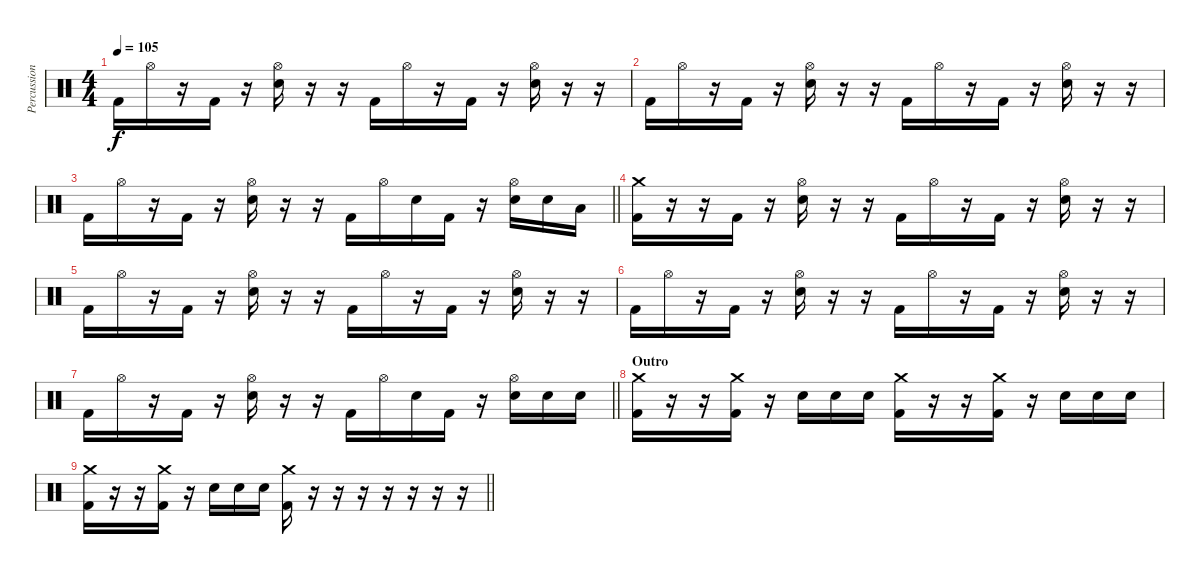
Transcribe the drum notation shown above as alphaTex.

\track ("Percussion" "Percussion") {instrument percussion}
\staff {score}
\articulation defaults
\ts (4 4)
\tempo 105
\clef neutral
\ks c "Kick (hit) 2".16{dy f} "Hi-Hat (open)".16
r.16 "Kick (hit) 2".16 r.16 ("Hi-Hat (open)" "Electric Snare (hit)").16 r.16 r.16 "Kick (hit) 2".16 "Hi-Hat (open)".16 r.16 "Kick (hit) 2".16 r.16 ("Hi-Hat (open)" "Electric Snare (hit)").16 r.16 r.16 |
"Kick (hit) 2".16 "Hi-Hat (open)".16 r.16 "Kick (hit) 2".16 r.16 ("Hi-Hat (open)" "Electric Snare (hit)").16 r.16 r.16 "Kick (hit) 2".16 "Hi-Hat (open)".16 r.16 "Kick (hit) 2".16 r.16 ("Hi-Hat (open)" "Electric Snare (hit)").16 r.16 r.16 |
\barLineRight lightlight "Kick (hit) 2".16 "Hi-Hat (open)".16
r.16 "Kick (hit) 2".16 r.16 ("Hi-Hat (open)" "Electric Snare (hit)").16 r.16 r.16 "Kick (hit) 2".16 "Hi-Hat (open)".16 "Electric Snare (hit)".16 "Kick (hit) 2".16 r.16 ("Hi-Hat (open)" "Electric Snare (hit)").16 "Electric Snare (hit)".16 "Low Tom (hit)".16 |
("Crash medium (hit)" "Kick (hit) 2").16 r.16 r.16 "Kick (hit) 2".16 r.16 ("Hi-Hat (open)" "Electric Snare (hit)").16 r.16 r.16 "Kick (hit) 2".16 "Hi-Hat (open)".16 r.16 "Kick (hit) 2".16 r.16 ("Hi-Hat (open)" "Electric Snare (hit)").16 r.16 r.16 |
"Kick (hit) 2".16 "Hi-Hat (open)".16 r.16 "Kick (hit) 2".16 r.16 ("Hi-Hat (open)" "Electric Snare (hit)").16 r.16 r.16 "Kick (hit) 2".16 "Hi-Hat (open)".16 r.16 "Kick (hit) 2".16 r.16 ("Hi-Hat (open)" "Electric Snare (hit)").16 r.16 r.16 |
"Kick (hit) 2".16 "Hi-Hat (open)".16 r.16 "Kick (hit) 2".16 r.16 ("Hi-Hat (open)" "Electric Snare (hit)").16 r.16 r.16 "Kick (hit) 2".16 "Hi-Hat (open)".16 r.16 "Kick (hit) 2".16 r.16 ("Hi-Hat (open)" "Electric Snare (hit)").16 r.16 r.16 |
\barLineRight lightlight "Kick (hit) 2".16 "Hi-Hat (open)".16
r.16 "Kick (hit) 2".16 r.16 ("Hi-Hat (open)" "Electric Snare (hit)").16 r.16 r.16 "Kick (hit) 2".16 "Hi-Hat (open)".16 "Electric Snare (hit)".16 "Kick (hit) 2".16 r.16 ("Hi-Hat (open)" "Electric Snare (hit)").16 "Electric Snare (hit)".16 "Electric Snare (hit)".16 |
\section ("" "Outro")
("Crash medium (hit)" "Kick (hit) 2").16 r.16 r.16 ("Crash medium (hit)" "Kick (hit) 2").16 r.16 "Electric Snare (hit)".16 "Electric Snare (hit)".16 "Electric Snare (hit)".16 ("Crash medium (hit)" "Kick (hit) 2").16 r.16 r.16 ("Crash medium (hit)" "Kick (hit) 2").16 r.16 "Electric Snare (hit)".16 "Electric Snare (hit)".16 "Electric Snare (hit)".16 |
\barLineRight lightlight
("Crash medium (hit)" "Kick (hit) 2").16 r.16 r.16 ("Crash medium (hit)" "Kick (hit) 2").16 r.16 "Electric Snare (hit)".16 "Electric Snare (hit)".16 "Electric Snare (hit)".16 ("Crash medium (hit)" "Kick (hit) 2").16 r.16 r.16 r.16 r.16 r.16 r.16 r.16
